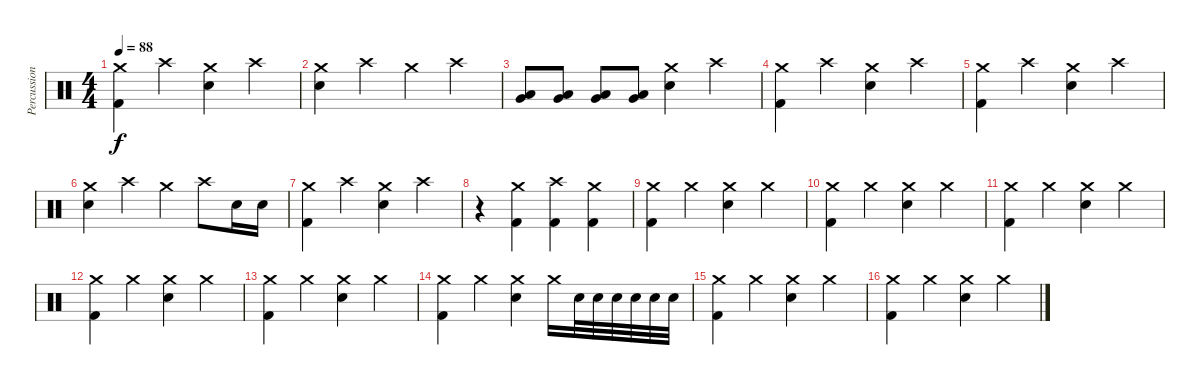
\track ("Percussion" "Percussion") {instrument percussion}
\staff {score}
\articulation defaults
\ts (4 4)
\tempo 88
\clef neutral
\ks c
("Crash medium (hit)" "Kick (hit) 2").4{dy f} "Crash high (hit)".4 ("Crash medium (hit)" "Electric Snare (hit)").4 "Crash high (hit)".4 |
("Crash medium (hit)" "Electric Snare (hit)").4 "Crash high (hit)".4 "Crash medium (hit)".4 "Crash high (hit)".4 |
("Low Tom (hit)" "Very Low Tom (hit)").8 ("Low Tom (hit)" "Very Low Tom (hit)").8 ("Low Tom (hit)" "Very Low Tom (hit)").8 ("Low Tom (hit)" "Very Low Tom (hit)").8 ("Crash medium (hit)" "Electric Snare (hit)").4 "Crash high (hit)".4 |
("Crash medium (hit)" "Kick (hit) 2").4 "Crash high (hit)".4 ("Crash medium (hit)" "Electric Snare (hit)").4 "Crash high (hit)".4 |
("Crash medium (hit)" "Kick (hit) 2").4 "Crash high (hit)".4 ("Crash medium (hit)" "Electric Snare (hit)").4 "Crash high (hit)".4 |
("Crash medium (hit)" "Electric Snare (hit)").4 "Crash high (hit)".4 "Crash medium (hit)".4 "Crash high (hit)".8 "Electric Snare (hit)".16 "Electric Snare (hit)".16 |
("Crash medium (hit)" "Kick (hit) 2").4 "Crash high (hit)".4 ("Crash medium (hit)" "Electric Snare (hit)").4 "Crash high (hit)".4 |
r.4 ("Crash medium (hit)" "Kick (hit) 2").4 ("Crash high (hit)" "Kick (hit) 2").4 ("Crash medium (hit)" "Kick (hit) 2").4 |
("Crash medium (hit)" "Kick (hit) 2").4 "Crash medium (hit)".4 ("Crash medium (hit)" "Electric Snare (hit)").4 "Crash medium (hit)".4 |
("Crash medium (hit)" "Kick (hit) 2").4 "Crash medium (hit)".4 ("Crash medium (hit)" "Electric Snare (hit)").4 "Crash medium (hit)".4 |
("Crash medium (hit)" "Kick (hit) 2").4 "Crash medium (hit)".4 ("Crash medium (hit)" "Electric Snare (hit)").4 "Crash medium (hit)".4 |
("Crash medium (hit)" "Kick (hit) 2").4 "Crash medium (hit)".4 ("Crash medium (hit)" "Electric Snare (hit)").4 "Crash medium (hit)".4 |
("Crash medium (hit)" "Kick (hit) 2").4 "Crash medium (hit)".4 ("Crash medium (hit)" "Electric Snare (hit)").4 "Crash medium (hit)".4 |
("Kick (hit) 2" "Crash medium (hit)").4 "Crash medium (hit)".4 ("Electric Snare (hit)" "Crash medium (hit)").4 "Crash medium (hit)".16 "Snare (hit) 2".32 "Snare (hit) 2".32 "Snare (hit) 2".32 "Snare (hit) 2".32 "Snare (hit) 2".32 "Snare (hit) 2".32 |
("Crash medium (hit)" "Kick (hit) 2").4 "Crash medium (hit)".4 ("Crash medium (hit)" "Electric Snare (hit)").4 "Crash medium (hit)".4 |
("Crash medium (hit)" "Kick (hit) 2").4 "Crash medium (hit)".4 ("Crash medium (hit)" "Electric Snare (hit)").4 "Crash medium (hit)".4
